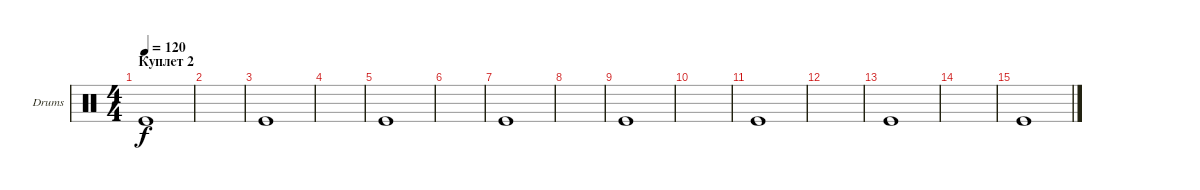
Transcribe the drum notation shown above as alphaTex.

\defaultSystemsLayout 4
\bracketExtendMode groupsimilarinstruments
\firstSystemTrackNameOrientation horizontal
\otherSystemsTrackNameOrientation horizontal
\track ("Drum" "Drums") {instrument percussion}
\staff {score}
\articulation defaults
\ts (4 4)
\section ("" "Куплет 2")
\tempo 120
\clef neutral
\ks c "Kick (hit)".1{dy f}
|
|
"Kick (hit)".1 |
|
"Kick (hit)".1 |
|
"Kick (hit)".1 |
|
"Kick (hit)".1 |
|
"Kick (hit)".1 |
|
"Kick (hit)".1 |
|
"Kick (hit)".1
